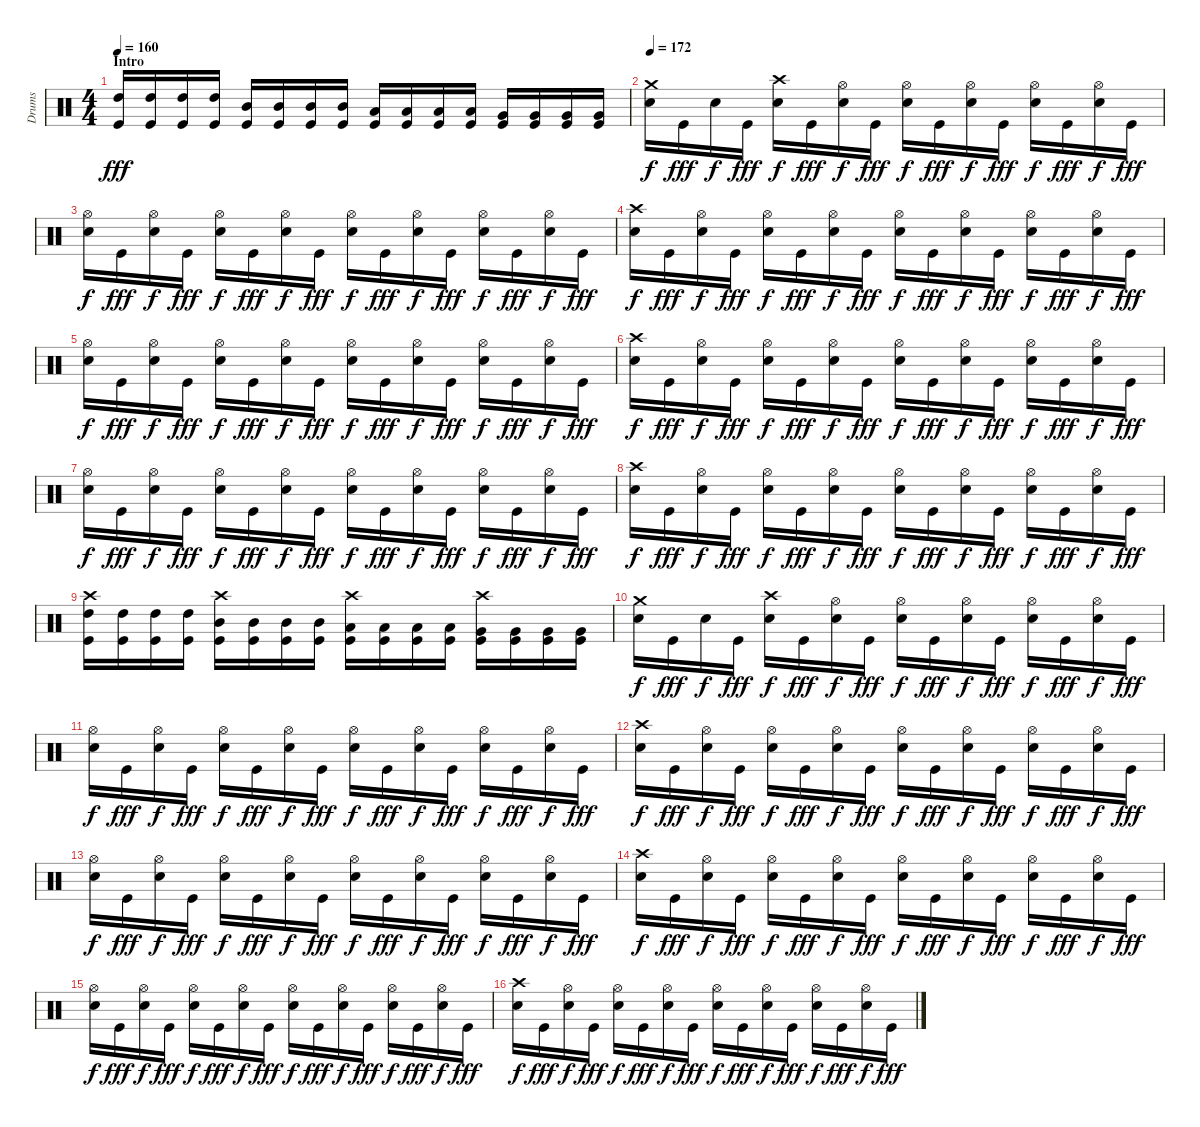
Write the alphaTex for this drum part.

\track ("Drums" "Drums") {instrument percussion}
\staff {score}
\articulation defaults
\ts (4 4)
\section ("" "Intro")
\tempo 160
\tempo 195
\tempo 160
\clef neutral
\ks c
("High Tom (hit)" "Kick (hit)").16{dy fff} ("High Tom (hit)" "Kick (hit)").16 ("High Tom (hit)" "Kick (hit)").16 ("High Tom (hit)" "Kick (hit)").16 ("Mid Tom (hit)" "Kick (hit)").16 ("Mid Tom (hit)" "Kick (hit)").16 ("Mid Tom (hit)" "Kick (hit)").16 ("Mid Tom (hit)" "Kick (hit)").16 ("Low Tom (hit)" "Kick (hit)").16 ("Low Tom (hit)" "Kick (hit)").16 ("Low Tom (hit)" "Kick (hit)").16 ("Low Tom (hit)" "Kick (hit)").16 ("Very Low Tom (hit)" "Kick (hit)").16 ("Very Low Tom (hit)" "Kick (hit)").16 ("Very Low Tom (hit)" "Kick (hit)").16 ("Very Low Tom (hit)" "Kick (hit)").16 |
\tempo 172
("Crash medium (hit)" "Electric Snare (hit)").16{dy f} "Kick (hit)".16{dy fff} "Electric Snare (hit)".16{dy f} "Kick (hit)".16{dy fff} ("Crash high (hit)" "Electric Snare (hit)").16{dy f} "Kick (hit)".16{dy fff} ("Hi-Hat (open)" "Electric Snare (hit)").16{dy f} "Kick (hit)".16{dy fff} ("Hi-Hat (open)" "Electric Snare (hit)").16{dy f} "Kick (hit)".16{dy fff} ("Hi-Hat (open)" "Electric Snare (hit)").16{dy f} "Kick (hit)".16{dy fff} ("Hi-Hat (open)" "Electric Snare (hit)").16{dy f} "Kick (hit)".16{dy fff} ("Hi-Hat (open)" "Electric Snare (hit)").16{dy f} "Kick (hit)".16{dy fff} |
("Hi-Hat (open)" "Electric Snare (hit)").16{dy f} "Kick (hit)".16{dy fff} ("Hi-Hat (open)" "Electric Snare (hit)").16{dy f} "Kick (hit)".16{dy fff} ("Hi-Hat (open)" "Electric Snare (hit)").16{dy f} "Kick (hit)".16{dy fff} ("Hi-Hat (open)" "Electric Snare (hit)").16{dy f} "Kick (hit)".16{dy fff} ("Hi-Hat (open)" "Electric Snare (hit)").16{dy f} "Kick (hit)".16{dy fff} ("Hi-Hat (open)" "Electric Snare (hit)").16{dy f} "Kick (hit)".16{dy fff} ("Hi-Hat (open)" "Electric Snare (hit)").16{dy f} "Kick (hit)".16{dy fff} ("Hi-Hat (open)" "Electric Snare (hit)").16{dy f} "Kick (hit)".16{dy fff} |
("Crash high (hit)" "Electric Snare (hit)").16{dy f} "Kick (hit)".16{dy fff} ("Hi-Hat (open)" "Electric Snare (hit)").16{dy f} "Kick (hit)".16{dy fff} ("Hi-Hat (open)" "Electric Snare (hit)").16{dy f} "Kick (hit)".16{dy fff} ("Hi-Hat (open)" "Electric Snare (hit)").16{dy f} "Kick (hit)".16{dy fff} ("Hi-Hat (open)" "Electric Snare (hit)").16{dy f} "Kick (hit)".16{dy fff} ("Hi-Hat (open)" "Electric Snare (hit)").16{dy f} "Kick (hit)".16{dy fff} ("Hi-Hat (open)" "Electric Snare (hit)").16{dy f} "Kick (hit)".16{dy fff} ("Hi-Hat (open)" "Electric Snare (hit)").16{dy f} "Kick (hit)".16{dy fff} |
("Hi-Hat (open)" "Electric Snare (hit)").16{dy f} "Kick (hit)".16{dy fff} ("Hi-Hat (open)" "Electric Snare (hit)").16{dy f} "Kick (hit)".16{dy fff} ("Hi-Hat (open)" "Electric Snare (hit)").16{dy f} "Kick (hit)".16{dy fff} ("Hi-Hat (open)" "Electric Snare (hit)").16{dy f} "Kick (hit)".16{dy fff} ("Hi-Hat (open)" "Electric Snare (hit)").16{dy f} "Kick (hit)".16{dy fff} ("Hi-Hat (open)" "Electric Snare (hit)").16{dy f} "Kick (hit)".16{dy fff} ("Hi-Hat (open)" "Electric Snare (hit)").16{dy f} "Kick (hit)".16{dy fff} ("Hi-Hat (open)" "Electric Snare (hit)").16{dy f} "Kick (hit)".16{dy fff} |
("Crash high (hit)" "Electric Snare (hit)").16{dy f} "Kick (hit)".16{dy fff} ("Hi-Hat (open)" "Electric Snare (hit)").16{dy f} "Kick (hit)".16{dy fff} ("Hi-Hat (open)" "Electric Snare (hit)").16{dy f} "Kick (hit)".16{dy fff} ("Hi-Hat (open)" "Electric Snare (hit)").16{dy f} "Kick (hit)".16{dy fff} ("Hi-Hat (open)" "Electric Snare (hit)").16{dy f} "Kick (hit)".16{dy fff} ("Hi-Hat (open)" "Electric Snare (hit)").16{dy f} "Kick (hit)".16{dy fff} ("Hi-Hat (open)" "Electric Snare (hit)").16{dy f} "Kick (hit)".16{dy fff} ("Hi-Hat (open)" "Electric Snare (hit)").16{dy f} "Kick (hit)".16{dy fff} |
("Hi-Hat (open)" "Electric Snare (hit)").16{dy f} "Kick (hit)".16{dy fff} ("Hi-Hat (open)" "Electric Snare (hit)").16{dy f} "Kick (hit)".16{dy fff} ("Hi-Hat (open)" "Electric Snare (hit)").16{dy f} "Kick (hit)".16{dy fff} ("Hi-Hat (open)" "Electric Snare (hit)").16{dy f} "Kick (hit)".16{dy fff} ("Hi-Hat (open)" "Electric Snare (hit)").16{dy f} "Kick (hit)".16{dy fff} ("Hi-Hat (open)" "Electric Snare (hit)").16{dy f} "Kick (hit)".16{dy fff} ("Hi-Hat (open)" "Electric Snare (hit)").16{dy f} "Kick (hit)".16{dy fff} ("Hi-Hat (open)" "Electric Snare (hit)").16{dy f} "Kick (hit)".16{dy fff} |
("Crash high (hit)" "Electric Snare (hit)").16{dy f} "Kick (hit)".16{dy fff} ("Hi-Hat (open)" "Electric Snare (hit)").16{dy f} "Kick (hit)".16{dy fff} ("Hi-Hat (open)" "Electric Snare (hit)").16{dy f} "Kick (hit)".16{dy fff} ("Hi-Hat (open)" "Electric Snare (hit)").16{dy f} "Kick (hit)".16{dy fff} ("Hi-Hat (open)" "Electric Snare (hit)").16{dy f} "Kick (hit)".16{dy fff} ("Hi-Hat (open)" "Electric Snare (hit)").16{dy f} "Kick (hit)".16{dy fff} ("Hi-Hat (open)" "Electric Snare (hit)").16{dy f} "Kick (hit)".16{dy fff} ("Hi-Hat (open)" "Electric Snare (hit)").16{dy f} "Kick (hit)".16{dy fff} |
("Crash high (hit)" "High Tom (hit)" "Kick (hit)").16 ("High Tom (hit)" "Kick (hit)").16 ("High Tom (hit)" "Kick (hit)").16 ("High Tom (hit)" "Kick (hit)").16 ("Crash high (hit)" "Mid Tom (hit)" "Kick (hit)").16 ("Mid Tom (hit)" "Kick (hit)").16 ("Mid Tom (hit)" "Kick (hit)").16 ("Mid Tom (hit)" "Kick (hit)").16 ("Crash high (hit)" "Low Tom (hit)" "Kick (hit)").16 ("Low Tom (hit)" "Kick (hit)").16 ("Low Tom (hit)" "Kick (hit)").16 ("Low Tom (hit)" "Kick (hit)").16 ("Crash high (hit)" "Very Low Tom (hit)" "Kick (hit)").16 ("Very Low Tom (hit)" "Kick (hit)").16 ("Very Low Tom (hit)" "Kick (hit)").16 ("Very Low Tom (hit)" "Kick (hit)").16 |
("Crash medium (hit)" "Electric Snare (hit)").16{dy f} "Kick (hit)".16{dy fff} "Electric Snare (hit)".16{dy f} "Kick (hit)".16{dy fff} ("Crash high (hit)" "Electric Snare (hit)").16{dy f} "Kick (hit)".16{dy fff} ("Hi-Hat (open)" "Electric Snare (hit)").16{dy f} "Kick (hit)".16{dy fff} ("Hi-Hat (open)" "Electric Snare (hit)").16{dy f} "Kick (hit)".16{dy fff} ("Hi-Hat (open)" "Electric Snare (hit)").16{dy f} "Kick (hit)".16{dy fff} ("Hi-Hat (open)" "Electric Snare (hit)").16{dy f} "Kick (hit)".16{dy fff} ("Hi-Hat (open)" "Electric Snare (hit)").16{dy f} "Kick (hit)".16{dy fff} |
("Hi-Hat (open)" "Electric Snare (hit)").16{dy f} "Kick (hit)".16{dy fff} ("Hi-Hat (open)" "Electric Snare (hit)").16{dy f} "Kick (hit)".16{dy fff} ("Hi-Hat (open)" "Electric Snare (hit)").16{dy f} "Kick (hit)".16{dy fff} ("Hi-Hat (open)" "Electric Snare (hit)").16{dy f} "Kick (hit)".16{dy fff} ("Hi-Hat (open)" "Electric Snare (hit)").16{dy f} "Kick (hit)".16{dy fff} ("Hi-Hat (open)" "Electric Snare (hit)").16{dy f} "Kick (hit)".16{dy fff} ("Hi-Hat (open)" "Electric Snare (hit)").16{dy f} "Kick (hit)".16{dy fff} ("Hi-Hat (open)" "Electric Snare (hit)").16{dy f} "Kick (hit)".16{dy fff} |
("Crash high (hit)" "Electric Snare (hit)").16{dy f} "Kick (hit)".16{dy fff} ("Hi-Hat (open)" "Electric Snare (hit)").16{dy f} "Kick (hit)".16{dy fff} ("Hi-Hat (open)" "Electric Snare (hit)").16{dy f} "Kick (hit)".16{dy fff} ("Hi-Hat (open)" "Electric Snare (hit)").16{dy f} "Kick (hit)".16{dy fff} ("Hi-Hat (open)" "Electric Snare (hit)").16{dy f} "Kick (hit)".16{dy fff} ("Hi-Hat (open)" "Electric Snare (hit)").16{dy f} "Kick (hit)".16{dy fff} ("Hi-Hat (open)" "Electric Snare (hit)").16{dy f} "Kick (hit)".16{dy fff} ("Hi-Hat (open)" "Electric Snare (hit)").16{dy f} "Kick (hit)".16{dy fff} |
("Hi-Hat (open)" "Electric Snare (hit)").16{dy f} "Kick (hit)".16{dy fff} ("Hi-Hat (open)" "Electric Snare (hit)").16{dy f} "Kick (hit)".16{dy fff} ("Hi-Hat (open)" "Electric Snare (hit)").16{dy f} "Kick (hit)".16{dy fff} ("Hi-Hat (open)" "Electric Snare (hit)").16{dy f} "Kick (hit)".16{dy fff} ("Hi-Hat (open)" "Electric Snare (hit)").16{dy f} "Kick (hit)".16{dy fff} ("Hi-Hat (open)" "Electric Snare (hit)").16{dy f} "Kick (hit)".16{dy fff} ("Hi-Hat (open)" "Electric Snare (hit)").16{dy f} "Kick (hit)".16{dy fff} ("Hi-Hat (open)" "Electric Snare (hit)").16{dy f} "Kick (hit)".16{dy fff} |
("Crash high (hit)" "Electric Snare (hit)").16{dy f} "Kick (hit)".16{dy fff} ("Hi-Hat (open)" "Electric Snare (hit)").16{dy f} "Kick (hit)".16{dy fff} ("Hi-Hat (open)" "Electric Snare (hit)").16{dy f} "Kick (hit)".16{dy fff} ("Hi-Hat (open)" "Electric Snare (hit)").16{dy f} "Kick (hit)".16{dy fff} ("Hi-Hat (open)" "Electric Snare (hit)").16{dy f} "Kick (hit)".16{dy fff} ("Hi-Hat (open)" "Electric Snare (hit)").16{dy f} "Kick (hit)".16{dy fff} ("Hi-Hat (open)" "Electric Snare (hit)").16{dy f} "Kick (hit)".16{dy fff} ("Hi-Hat (open)" "Electric Snare (hit)").16{dy f} "Kick (hit)".16{dy fff} |
("Hi-Hat (open)" "Electric Snare (hit)").16{dy f} "Kick (hit)".16{dy fff} ("Hi-Hat (open)" "Electric Snare (hit)").16{dy f} "Kick (hit)".16{dy fff} ("Hi-Hat (open)" "Electric Snare (hit)").16{dy f} "Kick (hit)".16{dy fff} ("Hi-Hat (open)" "Electric Snare (hit)").16{dy f} "Kick (hit)".16{dy fff} ("Hi-Hat (open)" "Electric Snare (hit)").16{dy f} "Kick (hit)".16{dy fff} ("Hi-Hat (open)" "Electric Snare (hit)").16{dy f} "Kick (hit)".16{dy fff} ("Hi-Hat (open)" "Electric Snare (hit)").16{dy f} "Kick (hit)".16{dy fff} ("Hi-Hat (open)" "Electric Snare (hit)").16{dy f} "Kick (hit)".16{dy fff} |
("Crash high (hit)" "Electric Snare (hit)").16{dy f} "Kick (hit)".16{dy fff} ("Hi-Hat (open)" "Electric Snare (hit)").16{dy f} "Kick (hit)".16{dy fff} ("Hi-Hat (open)" "Electric Snare (hit)").16{dy f} "Kick (hit)".16{dy fff} ("Hi-Hat (open)" "Electric Snare (hit)").16{dy f} "Kick (hit)".16{dy fff} ("Hi-Hat (open)" "Electric Snare (hit)").16{dy f} "Kick (hit)".16{dy fff} ("Hi-Hat (open)" "Electric Snare (hit)").16{dy f} "Kick (hit)".16{dy fff} ("Hi-Hat (open)" "Electric Snare (hit)").16{dy f} "Kick (hit)".16{dy fff} ("Hi-Hat (open)" "Electric Snare (hit)").16{dy f} "Kick (hit)".16{dy fff}
